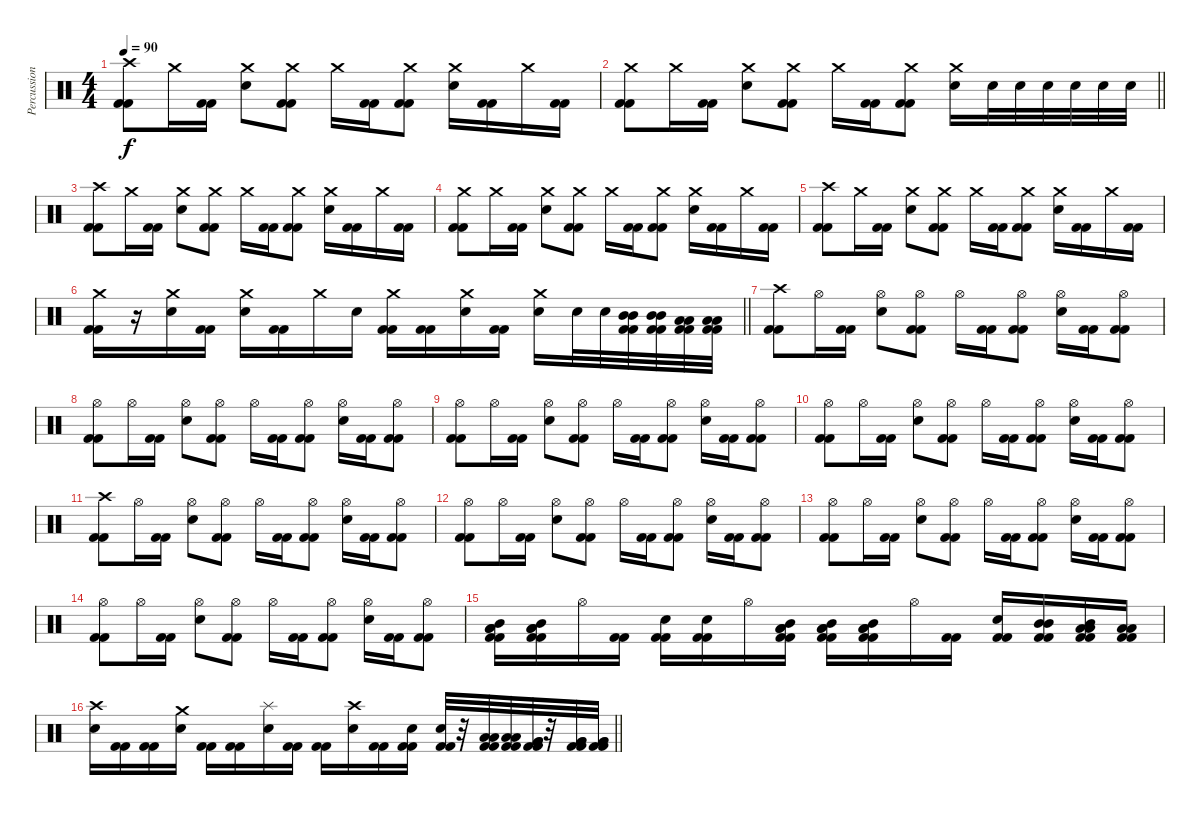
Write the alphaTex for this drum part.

\track ("Percussion" "Percussion") {instrument percussion}
\staff {score}
\articulation defaults
\ts (4 4)
\tempo 90
\clef neutral
\ks c
("Crash high (hit)" "Kick (hit) 2" "Kick (hit) 2").8{dy f} "Crash medium (hit)".16 ("Kick (hit) 2" "Kick (hit) 2").16 ("Crash medium (hit)" "Electric Snare (hit)").8 ("Crash medium (hit)" "Kick (hit) 2" "Kick (hit) 2").8 "Crash medium (hit)".16 ("Kick (hit) 2" "Kick (hit) 2").16 ("Crash medium (hit)" "Kick (hit) 2" "Kick (hit) 2").8 ("Crash medium (hit)" "Electric Snare (hit)").16 ("Kick (hit) 2" "Kick (hit) 2").16 "Crash medium (hit)".16 ("Kick (hit) 2" "Kick (hit) 2").16 |
\barLineRight lightlight
("Crash medium (hit)" "Kick (hit) 2" "Kick (hit) 2").8 "Crash medium (hit)".16 ("Kick (hit) 2" "Kick (hit) 2").16 ("Crash medium (hit)" "Electric Snare (hit)").8 ("Crash medium (hit)" "Kick (hit) 2" "Kick (hit) 2").8 "Crash medium (hit)".16 ("Kick (hit) 2" "Kick (hit) 2").16 ("Crash medium (hit)" "Kick (hit) 2" "Kick (hit) 2").8 ("Crash medium (hit)" "Electric Snare (hit)").16 "Electric Snare (hit)".32 "Electric Snare (hit)".32 "Electric Snare (hit)".32 "Electric Snare (hit)".32 "Electric Snare (hit)".32 "Electric Snare (hit)".32 |
("Crash high (hit)" "Kick (hit) 2" "Kick (hit) 2").8 "Crash medium (hit)".16 ("Kick (hit) 2" "Kick (hit) 2").16 ("Crash medium (hit)" "Electric Snare (hit)").8 ("Crash medium (hit)" "Kick (hit) 2" "Kick (hit) 2").8 "Crash medium (hit)".16 ("Kick (hit) 2" "Kick (hit) 2").16 ("Crash medium (hit)" "Kick (hit) 2" "Kick (hit) 2").8 ("Crash medium (hit)" "Electric Snare (hit)").16 ("Kick (hit) 2" "Kick (hit) 2").16 "Crash medium (hit)".16 ("Kick (hit) 2" "Kick (hit) 2").16 |
("Crash medium (hit)" "Kick (hit) 2" "Kick (hit) 2").8 "Crash medium (hit)".16 ("Kick (hit) 2" "Kick (hit) 2").16 ("Crash medium (hit)" "Electric Snare (hit)").8 ("Crash medium (hit)" "Kick (hit) 2" "Kick (hit) 2").8 "Crash medium (hit)".16 ("Kick (hit) 2" "Kick (hit) 2").16 ("Crash medium (hit)" "Kick (hit) 2" "Kick (hit) 2").8 ("Crash medium (hit)" "Electric Snare (hit)").16 ("Kick (hit) 2" "Kick (hit) 2").16 "Crash medium (hit)".16 ("Kick (hit) 2" "Kick (hit) 2").16 |
("Crash high (hit)" "Kick (hit) 2" "Kick (hit) 2").8 "Crash medium (hit)".16 ("Kick (hit) 2" "Kick (hit) 2").16 ("Crash medium (hit)" "Electric Snare (hit)").8 ("Crash medium (hit)" "Kick (hit) 2" "Kick (hit) 2").8 "Crash medium (hit)".16 ("Kick (hit) 2" "Kick (hit) 2").16 ("Crash medium (hit)" "Kick (hit) 2" "Kick (hit) 2").8 ("Crash medium (hit)" "Electric Snare (hit)").16 ("Kick (hit) 2" "Kick (hit) 2").16 "Crash medium (hit)".16 ("Kick (hit) 2" "Kick (hit) 2").16 |
\barLineRight lightlight
("Crash medium (hit)" "Kick (hit) 2" "Kick (hit) 2").16 r.16 ("Crash medium (hit)" "Electric Snare (hit)").16 ("Kick (hit) 2" "Kick (hit) 2").16 ("Crash medium (hit)" "Electric Snare (hit)").16 ("Kick (hit) 2" "Kick (hit) 2").16 "Crash medium (hit)".16 "Electric Snare (hit)".16 ("Crash medium (hit)" "Kick (hit) 2" "Kick (hit) 2").16 ("Kick (hit) 2" "Kick (hit) 2").16 ("Crash medium (hit)" "Electric Snare (hit)").16 ("Kick (hit) 2" "Kick (hit) 2").16 ("Crash medium (hit)" "Electric Snare (hit)").16 "Electric Snare (hit)".32 "Electric Snare (hit)".32 ("Mid Tom (hit)" "Mid Tom (hit)" "Kick (hit) 2" "Kick (hit) 2").32 ("Mid Tom (hit)" "Mid Tom (hit)" "Kick (hit) 2" "Kick (hit) 2").32 ("Low Tom (hit)" "Low Tom (hit)" "Kick (hit) 2" "Kick (hit) 2").32 ("Low Tom (hit)" "Low Tom (hit)" "Kick (hit) 2" "Kick (hit) 2").32 |
\section ("" "")
("Crash high (hit)" "Kick (hit) 2" "Kick (hit) 2").8 "Hi-Hat (open)".16 ("Kick (hit) 2" "Kick (hit) 2").16 ("Hi-Hat (open)" "Electric Snare (hit)").8 ("Hi-Hat (open)" "Kick (hit) 2" "Kick (hit) 2").8 "Hi-Hat (open)".16 ("Kick (hit) 2" "Kick (hit) 2").16 ("Hi-Hat (open)" "Kick (hit) 2" "Kick (hit) 2").8 ("Hi-Hat (open)" "Electric Snare (hit)").16 ("Kick (hit) 2" "Kick (hit) 2").16 ("Hi-Hat (open)" "Kick (hit) 2" "Kick (hit) 2").8 |
("Hi-Hat (open)" "Kick (hit) 2" "Kick (hit) 2").8 "Hi-Hat (open)".16 ("Kick (hit) 2" "Kick (hit) 2").16 ("Hi-Hat (open)" "Electric Snare (hit)").8 ("Hi-Hat (open)" "Kick (hit) 2" "Kick (hit) 2").8 "Hi-Hat (open)".16 ("Kick (hit) 2" "Kick (hit) 2").16 ("Hi-Hat (open)" "Kick (hit) 2" "Kick (hit) 2").8 ("Hi-Hat (open)" "Electric Snare (hit)").16 ("Kick (hit) 2" "Kick (hit) 2").16 ("Hi-Hat (open)" "Kick (hit) 2" "Kick (hit) 2").8 |
("Hi-Hat (open)" "Kick (hit) 2" "Kick (hit) 2").8 "Hi-Hat (open)".16 ("Kick (hit) 2" "Kick (hit) 2").16 ("Hi-Hat (open)" "Electric Snare (hit)").8 ("Hi-Hat (open)" "Kick (hit) 2" "Kick (hit) 2").8 "Hi-Hat (open)".16 ("Kick (hit) 2" "Kick (hit) 2").16 ("Hi-Hat (open)" "Kick (hit) 2" "Kick (hit) 2").8 ("Hi-Hat (open)" "Electric Snare (hit)").16 ("Kick (hit) 2" "Kick (hit) 2").16 ("Hi-Hat (open)" "Kick (hit) 2" "Kick (hit) 2").8 |
("Hi-Hat (open)" "Kick (hit) 2" "Kick (hit) 2").8 "Hi-Hat (open)".16 ("Kick (hit) 2" "Kick (hit) 2").16 ("Hi-Hat (open)" "Electric Snare (hit)").8 ("Hi-Hat (open)" "Kick (hit) 2" "Kick (hit) 2").8 "Hi-Hat (open)".16 ("Kick (hit) 2" "Kick (hit) 2").16 ("Hi-Hat (open)" "Kick (hit) 2" "Kick (hit) 2").8 ("Hi-Hat (open)" "Electric Snare (hit)").16 ("Kick (hit) 2" "Kick (hit) 2").16 ("Hi-Hat (open)" "Kick (hit) 2" "Kick (hit) 2").8 |
("Crash high (hit)" "Kick (hit) 2" "Kick (hit) 2").8 "Hi-Hat (open)".16 ("Kick (hit) 2" "Kick (hit) 2").16 ("Hi-Hat (open)" "Electric Snare (hit)").8 ("Hi-Hat (open)" "Kick (hit) 2" "Kick (hit) 2").8 "Hi-Hat (open)".16 ("Kick (hit) 2" "Kick (hit) 2").16 ("Hi-Hat (open)" "Kick (hit) 2" "Kick (hit) 2").8 ("Hi-Hat (open)" "Electric Snare (hit)").16 ("Kick (hit) 2" "Kick (hit) 2").16 ("Hi-Hat (open)" "Kick (hit) 2" "Kick (hit) 2").8 |
("Hi-Hat (open)" "Kick (hit) 2" "Kick (hit) 2").8 "Hi-Hat (open)".16 ("Kick (hit) 2" "Kick (hit) 2").16 ("Hi-Hat (open)" "Electric Snare (hit)").8 ("Hi-Hat (open)" "Kick (hit) 2" "Kick (hit) 2").8 "Hi-Hat (open)".16 ("Kick (hit) 2" "Kick (hit) 2").16 ("Hi-Hat (open)" "Kick (hit) 2" "Kick (hit) 2").8 ("Hi-Hat (open)" "Electric Snare (hit)").16 ("Kick (hit) 2" "Kick (hit) 2").16 ("Hi-Hat (open)" "Kick (hit) 2" "Kick (hit) 2").8 |
("Hi-Hat (open)" "Kick (hit) 2" "Kick (hit) 2").8 "Hi-Hat (open)".16 ("Kick (hit) 2" "Kick (hit) 2").16 ("Hi-Hat (open)" "Electric Snare (hit)").8 ("Hi-Hat (open)" "Kick (hit) 2" "Kick (hit) 2").8 "Hi-Hat (open)".16 ("Kick (hit) 2" "Kick (hit) 2").16 ("Hi-Hat (open)" "Kick (hit) 2" "Kick (hit) 2").8 ("Hi-Hat (open)" "Electric Snare (hit)").16 ("Kick (hit) 2" "Kick (hit) 2").16 ("Hi-Hat (open)" "Kick (hit) 2" "Kick (hit) 2").8 |
("Hi-Hat (open)" "Kick (hit) 2" "Kick (hit) 2").8 "Hi-Hat (open)".16 ("Kick (hit) 2" "Kick (hit) 2").16 ("Hi-Hat (open)" "Electric Snare (hit)").8 ("Hi-Hat (open)" "Kick (hit) 2" "Kick (hit) 2").8 "Hi-Hat (open)".16 ("Kick (hit) 2" "Kick (hit) 2").16 ("Hi-Hat (open)" "Kick (hit) 2" "Kick (hit) 2").8 ("Hi-Hat (open)" "Electric Snare (hit)").16 ("Kick (hit) 2" "Kick (hit) 2").16 ("Hi-Hat (open)" "Kick (hit) 2" "Kick (hit) 2").8 |
("Mid Tom (hit)" "Low Tom (hit)" "Low Tom (hit)" "Kick (hit) 2" "Kick (hit) 2").16 ("Mid Tom (hit)" "Low Tom (hit)" "Low Tom (hit)" "Kick (hit) 2" "Kick (hit) 2").16 "Hi-Hat (open)".16 ("Kick (hit) 2" "Kick (hit) 2").16 ("Electric Snare (hit)" "Kick (hit) 2" "Kick (hit) 2").16 ("Electric Snare (hit)" "Kick (hit) 2" "Kick (hit) 2").16 "Hi-Hat (open)".16 ("Mid Tom (hit)" "Low Tom (hit)" "Low Tom (hit)" "Kick (hit) 2" "Kick (hit) 2").16 ("Mid Tom (hit)" "Low Tom (hit)" "Low Tom (hit)" "Kick (hit) 2" "Kick (hit) 2").16 ("Mid Tom (hit)" "Low Tom (hit)" "Low Tom (hit)" "Kick (hit) 2" "Kick (hit) 2").16 "Hi-Hat (open)".16 ("Kick (hit) 2" "Kick (hit) 2").16 ("Electric Snare (hit)" "Kick (hit) 2" "Kick (hit) 2").16 ("Mid Tom (hit)" "Mid Tom (hit)" "Kick (hit) 2" "Kick (hit) 2").16 ("Mid Tom (hit)" "Low Tom (hit)" "Low Tom (hit)" "Kick (hit) 2" "Kick (hit) 2").16 ("Low Tom (hit)" "Low Tom (hit)" "Kick (hit) 2" "Kick (hit) 2").16 |
\barLineRight lightlight
("Crash high (hit)" "Electric Snare (hit)").16 ("Kick (hit) 2" "Kick (hit) 2").16 ("Kick (hit) 2" "Kick (hit) 2").16 ("Crash medium (hit)" "Electric Snare (hit)").16 ("Kick (hit) 2" "Kick (hit) 2").16 ("Kick (hit) 2" "Kick (hit) 2").16 ("Splash (hit)" "Electric Snare (hit)").16 ("Kick (hit) 2" "Kick (hit) 2").16 ("Kick (hit) 2" "Kick (hit) 2").16 ("Crash high (hit)" "Electric Snare (hit)").16 ("Kick (hit) 2" "Kick (hit) 2").16 ("Electric Snare (hit)" "Kick (hit) 2" "Kick (hit) 2").16 ("Electric Snare (hit)" "Kick (hit) 2" "Kick (hit) 2").32 r.32 ("Low Tom (hit)" "Low Tom (hit)" "Kick (hit) 2" "Kick (hit) 2").32 ("Low Tom (hit)" "Low Tom (hit)" "Kick (hit) 2" "Kick (hit) 2").32 ("Very Low Tom (hit)" "Very Low Tom (hit)" "Kick (hit) 2" "Kick (hit) 2").32 r.32 ("Very Low Tom (hit)" "Very Low Tom (hit)" "Kick (hit) 2" "Kick (hit) 2").32 ("Very Low Tom (hit)" "Very Low Tom (hit)" "Kick (hit) 2" "Kick (hit) 2").32
